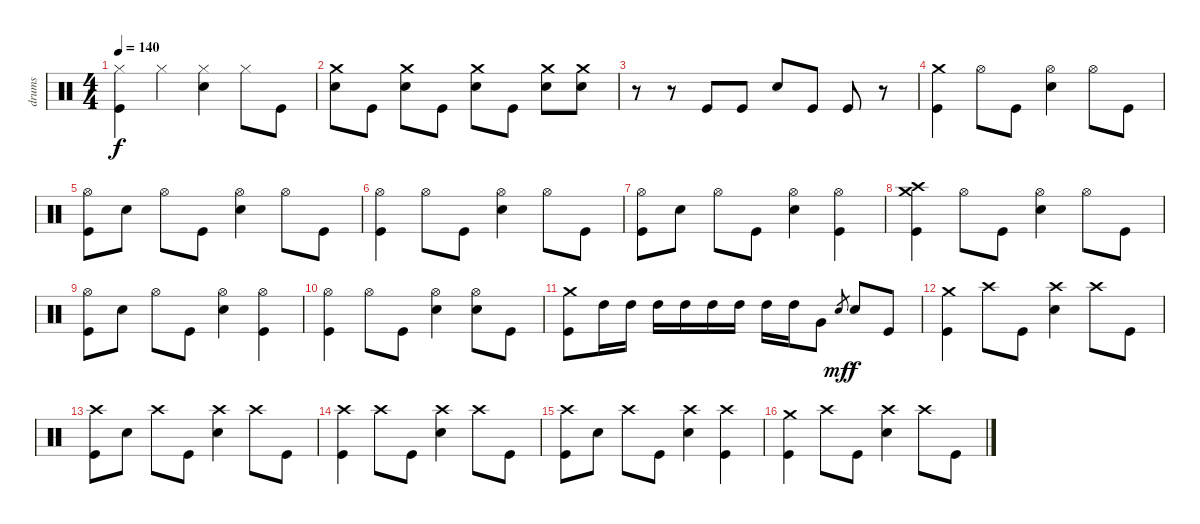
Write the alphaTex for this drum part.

\track ("drums" "drums") {instrument percussion}
\staff {score}
\articulation defaults
\ts (4 4)
\tempo 140
\clef neutral
\ks c
("Hi-Hat (closed)" "Kick (hit)").4{dy f} "Hi-Hat (closed)".4 ("Hi-Hat (closed)" "Snare (hit) 2").4 "Hi-Hat (closed)".8 "Kick (hit)".8 |
("Crash medium (hit)" "Snare (hit) 2").8 "Kick (hit)".8 ("Crash medium (hit)" "Snare (hit) 2").8 "Kick (hit)".8 ("Crash medium (hit)" "Snare (hit) 2").8 "Kick (hit)".8 ("Crash medium (hit)" "Snare (hit) 2").8 ("Crash medium (hit)" "Snare (hit) 2").8 |
r.8 r.8 "Kick (hit)".8 "Kick (hit)".8 "Snare (hit) 2".8 "Kick (hit)".8 "Kick (hit)".8 r.8 |
("Crash medium (hit)" "Kick (hit)").4 "Hi-Hat (open)".8 "Kick (hit)".8 ("Hi-Hat (open)" "Snare (hit) 2").4 "Hi-Hat (open)".8 "Kick (hit)".8 |
("Hi-Hat (open)" "Kick (hit)").8 "Snare (hit) 2".8 "Hi-Hat (open)".8 "Kick (hit)".8 ("Hi-Hat (open)" "Snare (hit) 2").4 "Hi-Hat (open)".8 "Kick (hit)".8 |
("Hi-Hat (open)" "Kick (hit)").4 "Hi-Hat (open)".8 "Kick (hit)".8 ("Hi-Hat (open)" "Snare (hit) 2").4 "Hi-Hat (open)".8 "Kick (hit)".8 |
("Hi-Hat (open)" "Kick (hit)").8 "Snare (hit) 2".8 "Hi-Hat (open)".8 "Kick (hit)".8 ("Hi-Hat (open)" "Snare (hit) 2").4 ("Hi-Hat (open)" "Kick (hit)").4 |
("Crash medium (hit)" "Crash high (hit)" "Kick (hit)").4 "Hi-Hat (open)".8 "Kick (hit)".8 ("Hi-Hat (open)" "Snare (hit) 2").4 "Hi-Hat (open)".8 "Kick (hit)".8 |
("Hi-Hat (open)" "Kick (hit)").8 "Snare (hit) 2".8 "Hi-Hat (open)".8 "Kick (hit)".8 ("Hi-Hat (open)" "Snare (hit) 2").4 ("Hi-Hat (open)" "Kick (hit)").4 |
("Hi-Hat (open)" "Kick (hit)").4 "Hi-Hat (open)".8 "Kick (hit)".8 ("Hi-Hat (open)" "Snare (hit) 2").4 ("Hi-Hat (open)" "Snare (hit) 2").8 "Kick (hit)".8 |
("Crash medium (hit)" "Kick (hit)").8 "High Tom (hit)".16 "High Tom (hit)".16 "High Tom (hit)".16 "High Tom (hit)".16 "High Tom (hit)".16 "High Tom (hit)".16 "High Tom (hit)".16 "High Tom (hit)".16 "Very Low Tom (hit)".8 "Snare (hit)".8{gr dy mf} "Snare (hit) 2".8{dy f} "Kick (hit)".8 |
("Crash medium (hit)" "Kick (hit)").4 "Crash high (hit)".8 "Kick (hit)".8 ("Crash high (hit)" "Snare (hit) 2").4 "Crash high (hit)".8 "Kick (hit)".8 |
("Crash high (hit)" "Kick (hit)").8 "Snare (hit) 2".8 "Crash high (hit)".8 "Kick (hit)".8 ("Crash high (hit)" "Snare (hit) 2").4 "Crash high (hit)".8 "Kick (hit)".8 |
("Crash high (hit)" "Kick (hit)").4 "Crash high (hit)".8 "Kick (hit)".8 ("Crash high (hit)" "Snare (hit) 2").4 "Crash high (hit)".8 "Kick (hit)".8 |
("Crash high (hit)" "Kick (hit)").8 "Snare (hit) 2".8 "Crash high (hit)".8 "Kick (hit)".8 ("Crash high (hit)" "Snare (hit) 2").4 ("Crash high (hit)" "Kick (hit)").4 |
("Crash medium (hit)" "Kick (hit)").4 "Crash high (hit)".8 "Kick (hit)".8 ("Crash high (hit)" "Snare (hit) 2").4 "Crash high (hit)".8 "Kick (hit)".8
